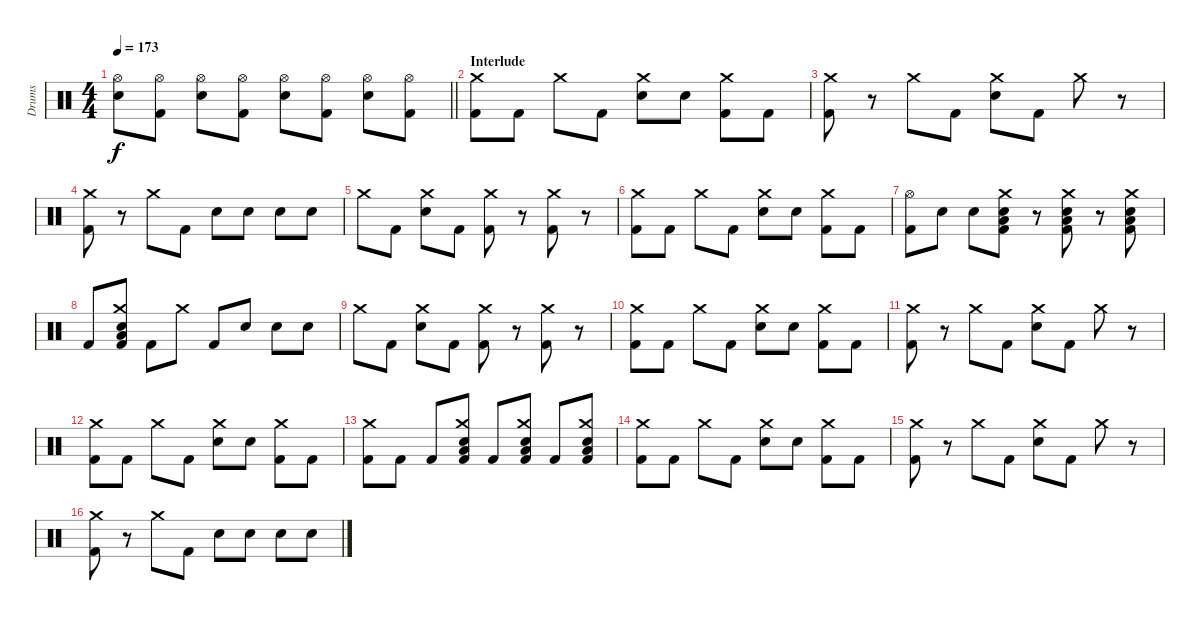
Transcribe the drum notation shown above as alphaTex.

\track ("Drums" "Drums") {instrument percussion}
\staff {score}
\articulation defaults
\ts (4 4)
\tempo 173
\clef neutral
\barLineRight lightlight
\ks c
("Hi-Hat (open)" "Snare (hit) 2").8{dy f} ("Hi-Hat (open)" "Kick (hit) 2").8 ("Hi-Hat (open)" "Snare (hit) 2").8 ("Hi-Hat (open)" "Kick (hit) 2").8 ("Hi-Hat (open)" "Snare (hit) 2").8 ("Hi-Hat (open)" "Kick (hit) 2").8 ("Hi-Hat (open)" "Snare (hit) 2").8 ("Hi-Hat (open)" "Kick (hit) 2").8 |
\section ("" "Interlude")
("Crash medium (hit)" "Kick (hit) 2").8 "Kick (hit) 2".8 "Crash medium (hit)".8 "Kick (hit) 2".8 ("Crash medium (hit)" "Snare (hit) 2").8 "Snare (hit) 2".8 ("Crash medium (hit)" "Kick (hit) 2").8 "Kick (hit) 2".8 |
("Crash medium (hit)" "Kick (hit) 2").8 r.8 "Crash medium (hit)".8 "Kick (hit) 2".8 ("Crash medium (hit)" "Snare (hit) 2").8 "Kick (hit) 2".8 "Crash medium (hit)".8 r.8 |
("Crash medium (hit)" "Kick (hit) 2").8 r.8 "Crash medium (hit)".8 "Kick (hit) 2".8 "Snare (hit) 2".8 "Snare (hit) 2".8 "Snare (hit) 2".8 "Snare (hit) 2".8 |
"Crash medium (hit)".8 "Kick (hit) 2".8 ("Crash medium (hit)" "Snare (hit) 2").8 "Kick (hit) 2".8 ("Crash medium (hit)" "Kick (hit) 2").8 r.8 ("Crash medium (hit)" "Kick (hit) 2").8 r.8 |
("Crash medium (hit)" "Kick (hit) 2").8 "Kick (hit) 2".8 "Crash medium (hit)".8 "Kick (hit) 2".8 ("Crash medium (hit)" "Snare (hit) 2").8 "Snare (hit) 2".8 ("Crash medium (hit)" "Kick (hit) 2").8 "Kick (hit) 2".8 |
("Hi-Hat (open)" "Kick (hit) 2").8 "Snare (hit) 2".8 "Snare (hit) 2".8 ("Crash medium (hit)" "Low Floor Tom (hit)" "Snare (hit) 2" "Kick (hit) 2").8 r.8 ("Crash medium (hit)" "Low Floor Tom (hit)" "Snare (hit) 2" "Kick (hit) 2").8 r.8 ("Crash medium (hit)" "Low Floor Tom (hit)" "Snare (hit) 2" "Kick (hit) 2").8 |
"Kick (hit) 2".8 ("Crash medium (hit)" "Low Floor Tom (hit)" "Snare (hit) 2" "Kick (hit) 2").8 "Kick (hit) 2".8 "Crash medium (hit)".8 "Kick (hit) 2".8 "Snare (hit) 2".8 "Snare (hit) 2".8 "Snare (hit) 2".8 |
"Crash medium (hit)".8 "Kick (hit) 2".8 ("Crash medium (hit)" "Snare (hit) 2").8 "Kick (hit) 2".8 ("Crash medium (hit)" "Kick (hit) 2").8 r.8 ("Crash medium (hit)" "Kick (hit) 2").8 r.8 |
("Crash medium (hit)" "Kick (hit) 2").8 "Kick (hit) 2".8 "Crash medium (hit)".8 "Kick (hit) 2".8 ("Crash medium (hit)" "Snare (hit) 2").8 "Snare (hit) 2".8 ("Crash medium (hit)" "Kick (hit) 2").8 "Kick (hit) 2".8 |
("Crash medium (hit)" "Kick (hit) 2").8 r.8 "Crash medium (hit)".8 "Kick (hit) 2".8 ("Crash medium (hit)" "Snare (hit) 2").8 "Kick (hit) 2".8 "Crash medium (hit)".8 r.8 |
("Crash medium (hit)" "Kick (hit) 2").8 "Kick (hit) 2".8 "Crash medium (hit)".8 "Kick (hit) 2".8 ("Crash medium (hit)" "Snare (hit) 2").8 "Snare (hit) 2".8 ("Crash medium (hit)" "Kick (hit) 2").8 "Kick (hit) 2".8 |
("Crash medium (hit)" "Kick (hit) 2").8 "Kick (hit) 2".8 "Kick (hit) 2".8 ("Crash medium (hit)" "Low Floor Tom (hit)" "Snare (hit) 2" "Kick (hit) 2").8 "Kick (hit) 2".8 ("Crash medium (hit)" "Low Floor Tom (hit)" "Snare (hit) 2" "Kick (hit) 2").8 "Kick (hit) 2".8 ("Crash medium (hit)" "Low Floor Tom (hit)" "Snare (hit) 2" "Kick (hit) 2").8 |
("Crash medium (hit)" "Kick (hit) 2").8 "Kick (hit) 2".8 "Crash medium (hit)".8 "Kick (hit) 2".8 ("Crash medium (hit)" "Snare (hit) 2").8 "Snare (hit) 2".8 ("Crash medium (hit)" "Kick (hit) 2").8 "Kick (hit) 2".8 |
("Crash medium (hit)" "Kick (hit) 2").8 r.8 "Crash medium (hit)".8 "Kick (hit) 2".8 ("Crash medium (hit)" "Snare (hit) 2").8 "Kick (hit) 2".8 "Crash medium (hit)".8 r.8 |
("Crash medium (hit)" "Kick (hit) 2").8 r.8 "Crash medium (hit)".8 "Kick (hit) 2".8 "Snare (hit) 2".8 "Snare (hit) 2".8 "Snare (hit) 2".8 "Snare (hit) 2".8
